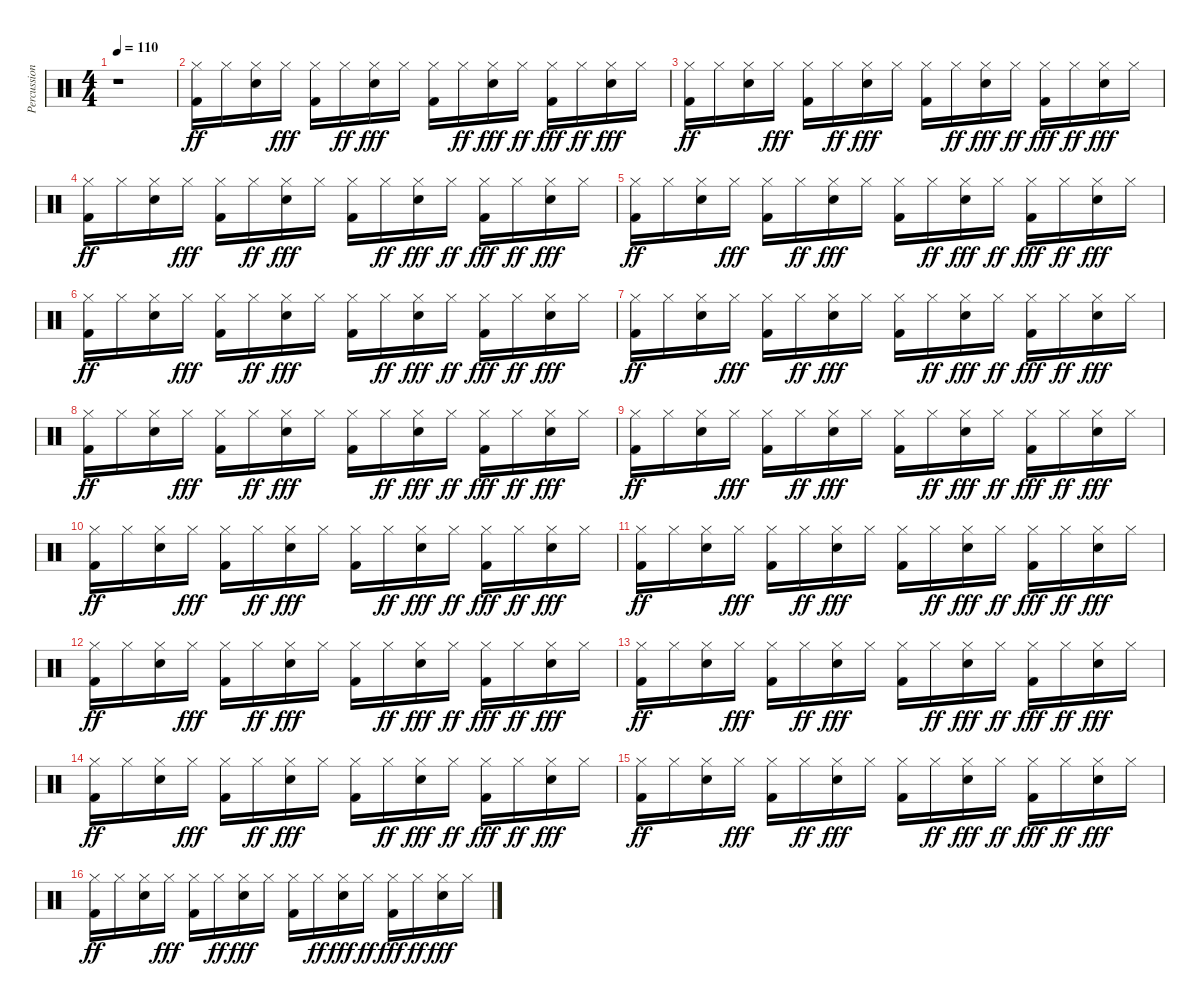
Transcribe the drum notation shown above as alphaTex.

\track ("Percussion" "Percussion") {instrument percussion}
\staff {score}
\articulation defaults
\ts (4 4)
\tempo 110
\clef neutral
\ks c
r.1{dy ff} |
("Kick (hit) 2" "Hi-Hat (closed)").16 "Hi-Hat (closed)".16 ("Electric Snare (hit)" "Hi-Hat (closed)").16 "Hi-Hat (closed)".16{dy fff} ("Kick (hit) 2" "Hi-Hat (closed)").16 "Hi-Hat (closed)".16{dy ff} ("Electric Snare (hit)" "Hi-Hat (closed)").16{dy fff} "Hi-Hat (closed)".16 ("Kick (hit) 2" "Hi-Hat (closed)").16 "Hi-Hat (closed)".16{dy ff} ("Electric Snare (hit)" "Hi-Hat (closed)").16{dy fff} "Hi-Hat (closed)".16{dy ff} ("Kick (hit) 2" "Hi-Hat (closed)").16{dy fff} "Hi-Hat (closed)".16{dy ff} ("Electric Snare (hit)" "Hi-Hat (closed)").16{dy fff} "Hi-Hat (closed)".16 |
("Kick (hit) 2" "Hi-Hat (closed)").16{dy ff} "Hi-Hat (closed)".16 ("Electric Snare (hit)" "Hi-Hat (closed)").16 "Hi-Hat (closed)".16{dy fff} ("Kick (hit) 2" "Hi-Hat (closed)").16 "Hi-Hat (closed)".16{dy ff} ("Electric Snare (hit)" "Hi-Hat (closed)").16{dy fff} "Hi-Hat (closed)".16 ("Kick (hit) 2" "Hi-Hat (closed)").16 "Hi-Hat (closed)".16{dy ff} ("Electric Snare (hit)" "Hi-Hat (closed)").16{dy fff} "Hi-Hat (closed)".16{dy ff} ("Kick (hit) 2" "Hi-Hat (closed)").16{dy fff} "Hi-Hat (closed)".16{dy ff} ("Electric Snare (hit)" "Hi-Hat (closed)").16{dy fff} "Hi-Hat (closed)".16 |
("Kick (hit) 2" "Hi-Hat (closed)").16{dy ff} "Hi-Hat (closed)".16 ("Electric Snare (hit)" "Hi-Hat (closed)").16 "Hi-Hat (closed)".16{dy fff} ("Kick (hit) 2" "Hi-Hat (closed)").16 "Hi-Hat (closed)".16{dy ff} ("Electric Snare (hit)" "Hi-Hat (closed)").16{dy fff} "Hi-Hat (closed)".16 ("Kick (hit) 2" "Hi-Hat (closed)").16 "Hi-Hat (closed)".16{dy ff} ("Electric Snare (hit)" "Hi-Hat (closed)").16{dy fff} "Hi-Hat (closed)".16{dy ff} ("Kick (hit) 2" "Hi-Hat (closed)").16{dy fff} "Hi-Hat (closed)".16{dy ff} ("Electric Snare (hit)" "Hi-Hat (closed)").16{dy fff} "Hi-Hat (closed)".16 |
("Kick (hit) 2" "Hi-Hat (closed)").16{dy ff} "Hi-Hat (closed)".16 ("Electric Snare (hit)" "Hi-Hat (closed)").16 "Hi-Hat (closed)".16{dy fff} ("Kick (hit) 2" "Hi-Hat (closed)").16 "Hi-Hat (closed)".16{dy ff} ("Electric Snare (hit)" "Hi-Hat (closed)").16{dy fff} "Hi-Hat (closed)".16 ("Kick (hit) 2" "Hi-Hat (closed)").16 "Hi-Hat (closed)".16{dy ff} ("Electric Snare (hit)" "Hi-Hat (closed)").16{dy fff} "Hi-Hat (closed)".16{dy ff} ("Kick (hit) 2" "Hi-Hat (closed)").16{dy fff} "Hi-Hat (closed)".16{dy ff} ("Electric Snare (hit)" "Hi-Hat (closed)").16{dy fff} "Hi-Hat (closed)".16 |
("Kick (hit) 2" "Hi-Hat (closed)").16{dy ff} "Hi-Hat (closed)".16 ("Electric Snare (hit)" "Hi-Hat (closed)").16 "Hi-Hat (closed)".16{dy fff} ("Kick (hit) 2" "Hi-Hat (closed)").16 "Hi-Hat (closed)".16{dy ff} ("Electric Snare (hit)" "Hi-Hat (closed)").16{dy fff} "Hi-Hat (closed)".16 ("Kick (hit) 2" "Hi-Hat (closed)").16 "Hi-Hat (closed)".16{dy ff} ("Electric Snare (hit)" "Hi-Hat (closed)").16{dy fff} "Hi-Hat (closed)".16{dy ff} ("Kick (hit) 2" "Hi-Hat (closed)").16{dy fff} "Hi-Hat (closed)".16{dy ff} ("Electric Snare (hit)" "Hi-Hat (closed)").16{dy fff} "Hi-Hat (closed)".16 |
("Kick (hit) 2" "Hi-Hat (closed)").16{dy ff} "Hi-Hat (closed)".16 ("Electric Snare (hit)" "Hi-Hat (closed)").16 "Hi-Hat (closed)".16{dy fff} ("Kick (hit) 2" "Hi-Hat (closed)").16 "Hi-Hat (closed)".16{dy ff} ("Electric Snare (hit)" "Hi-Hat (closed)").16{dy fff} "Hi-Hat (closed)".16 ("Kick (hit) 2" "Hi-Hat (closed)").16 "Hi-Hat (closed)".16{dy ff} ("Electric Snare (hit)" "Hi-Hat (closed)").16{dy fff} "Hi-Hat (closed)".16{dy ff} ("Kick (hit) 2" "Hi-Hat (closed)").16{dy fff} "Hi-Hat (closed)".16{dy ff} ("Electric Snare (hit)" "Hi-Hat (closed)").16{dy fff} "Hi-Hat (closed)".16 |
("Kick (hit) 2" "Hi-Hat (closed)").16{dy ff} "Hi-Hat (closed)".16 ("Electric Snare (hit)" "Hi-Hat (closed)").16 "Hi-Hat (closed)".16{dy fff} ("Kick (hit) 2" "Hi-Hat (closed)").16 "Hi-Hat (closed)".16{dy ff} ("Electric Snare (hit)" "Hi-Hat (closed)").16{dy fff} "Hi-Hat (closed)".16 ("Kick (hit) 2" "Hi-Hat (closed)").16 "Hi-Hat (closed)".16{dy ff} ("Electric Snare (hit)" "Hi-Hat (closed)").16{dy fff} "Hi-Hat (closed)".16{dy ff} ("Kick (hit) 2" "Hi-Hat (closed)").16{dy fff} "Hi-Hat (closed)".16{dy ff} ("Electric Snare (hit)" "Hi-Hat (closed)").16{dy fff} "Hi-Hat (closed)".16 |
("Kick (hit) 2" "Hi-Hat (closed)").16{dy ff} "Hi-Hat (closed)".16 ("Electric Snare (hit)" "Hi-Hat (closed)").16 "Hi-Hat (closed)".16{dy fff} ("Kick (hit) 2" "Hi-Hat (closed)").16 "Hi-Hat (closed)".16{dy ff} ("Electric Snare (hit)" "Hi-Hat (closed)").16{dy fff} "Hi-Hat (closed)".16 ("Kick (hit) 2" "Hi-Hat (closed)").16 "Hi-Hat (closed)".16{dy ff} ("Electric Snare (hit)" "Hi-Hat (closed)").16{dy fff} "Hi-Hat (closed)".16{dy ff} ("Kick (hit) 2" "Hi-Hat (closed)").16{dy fff} "Hi-Hat (closed)".16{dy ff} ("Electric Snare (hit)" "Hi-Hat (closed)").16{dy fff} "Hi-Hat (closed)".16 |
("Kick (hit) 2" "Hi-Hat (closed)").16{dy ff} "Hi-Hat (closed)".16 ("Electric Snare (hit)" "Hi-Hat (closed)").16 "Hi-Hat (closed)".16{dy fff} ("Kick (hit) 2" "Hi-Hat (closed)").16 "Hi-Hat (closed)".16{dy ff} ("Electric Snare (hit)" "Hi-Hat (closed)").16{dy fff} "Hi-Hat (closed)".16 ("Kick (hit) 2" "Hi-Hat (closed)").16 "Hi-Hat (closed)".16{dy ff} ("Electric Snare (hit)" "Hi-Hat (closed)").16{dy fff} "Hi-Hat (closed)".16{dy ff} ("Kick (hit) 2" "Hi-Hat (closed)").16{dy fff} "Hi-Hat (closed)".16{dy ff} ("Electric Snare (hit)" "Hi-Hat (closed)").16{dy fff} "Hi-Hat (closed)".16 |
("Kick (hit) 2" "Hi-Hat (closed)").16{dy ff} "Hi-Hat (closed)".16 ("Electric Snare (hit)" "Hi-Hat (closed)").16 "Hi-Hat (closed)".16{dy fff} ("Kick (hit) 2" "Hi-Hat (closed)").16 "Hi-Hat (closed)".16{dy ff} ("Electric Snare (hit)" "Hi-Hat (closed)").16{dy fff} "Hi-Hat (closed)".16 ("Kick (hit) 2" "Hi-Hat (closed)").16 "Hi-Hat (closed)".16{dy ff} ("Electric Snare (hit)" "Hi-Hat (closed)").16{dy fff} "Hi-Hat (closed)".16{dy ff} ("Kick (hit) 2" "Hi-Hat (closed)").16{dy fff} "Hi-Hat (closed)".16{dy ff} ("Electric Snare (hit)" "Hi-Hat (closed)").16{dy fff} "Hi-Hat (closed)".16 |
("Kick (hit) 2" "Hi-Hat (closed)").16{dy ff} "Hi-Hat (closed)".16 ("Electric Snare (hit)" "Hi-Hat (closed)").16 "Hi-Hat (closed)".16{dy fff} ("Kick (hit) 2" "Hi-Hat (closed)").16 "Hi-Hat (closed)".16{dy ff} ("Electric Snare (hit)" "Hi-Hat (closed)").16{dy fff} "Hi-Hat (closed)".16 ("Kick (hit) 2" "Hi-Hat (closed)").16 "Hi-Hat (closed)".16{dy ff} ("Electric Snare (hit)" "Hi-Hat (closed)").16{dy fff} "Hi-Hat (closed)".16{dy ff} ("Kick (hit) 2" "Hi-Hat (closed)").16{dy fff} "Hi-Hat (closed)".16{dy ff} ("Electric Snare (hit)" "Hi-Hat (closed)").16{dy fff} "Hi-Hat (closed)".16 |
("Kick (hit) 2" "Hi-Hat (closed)").16{dy ff} "Hi-Hat (closed)".16 ("Electric Snare (hit)" "Hi-Hat (closed)").16 "Hi-Hat (closed)".16{dy fff} ("Kick (hit) 2" "Hi-Hat (closed)").16 "Hi-Hat (closed)".16{dy ff} ("Electric Snare (hit)" "Hi-Hat (closed)").16{dy fff} "Hi-Hat (closed)".16 ("Kick (hit) 2" "Hi-Hat (closed)").16 "Hi-Hat (closed)".16{dy ff} ("Electric Snare (hit)" "Hi-Hat (closed)").16{dy fff} "Hi-Hat (closed)".16{dy ff} ("Kick (hit) 2" "Hi-Hat (closed)").16{dy fff} "Hi-Hat (closed)".16{dy ff} ("Electric Snare (hit)" "Hi-Hat (closed)").16{dy fff} "Hi-Hat (closed)".16 |
("Kick (hit) 2" "Hi-Hat (closed)").16{dy ff} "Hi-Hat (closed)".16 ("Electric Snare (hit)" "Hi-Hat (closed)").16 "Hi-Hat (closed)".16{dy fff} ("Kick (hit) 2" "Hi-Hat (closed)").16 "Hi-Hat (closed)".16{dy ff} ("Electric Snare (hit)" "Hi-Hat (closed)").16{dy fff} "Hi-Hat (closed)".16 ("Kick (hit) 2" "Hi-Hat (closed)").16 "Hi-Hat (closed)".16{dy ff} ("Electric Snare (hit)" "Hi-Hat (closed)").16{dy fff} "Hi-Hat (closed)".16{dy ff} ("Kick (hit) 2" "Hi-Hat (closed)").16{dy fff} "Hi-Hat (closed)".16{dy ff} ("Electric Snare (hit)" "Hi-Hat (closed)").16{dy fff} "Hi-Hat (closed)".16 |
("Kick (hit) 2" "Hi-Hat (closed)").16{dy ff} "Hi-Hat (closed)".16 ("Electric Snare (hit)" "Hi-Hat (closed)").16 "Hi-Hat (closed)".16{dy fff} ("Kick (hit) 2" "Hi-Hat (closed)").16 "Hi-Hat (closed)".16{dy ff} ("Electric Snare (hit)" "Hi-Hat (closed)").16{dy fff} "Hi-Hat (closed)".16 ("Kick (hit) 2" "Hi-Hat (closed)").16 "Hi-Hat (closed)".16{dy ff} ("Electric Snare (hit)" "Hi-Hat (closed)").16{dy fff} "Hi-Hat (closed)".16{dy ff} ("Kick (hit) 2" "Hi-Hat (closed)").16{dy fff} "Hi-Hat (closed)".16{dy ff} ("Electric Snare (hit)" "Hi-Hat (closed)").16{dy fff} "Hi-Hat (closed)".16 |
("Kick (hit) 2" "Hi-Hat (closed)").16{dy ff} "Hi-Hat (closed)".16 ("Electric Snare (hit)" "Hi-Hat (closed)").16 "Hi-Hat (closed)".16{dy fff} ("Kick (hit) 2" "Hi-Hat (closed)").16 "Hi-Hat (closed)".16{dy ff} ("Electric Snare (hit)" "Hi-Hat (closed)").16{dy fff} "Hi-Hat (closed)".16 ("Kick (hit) 2" "Hi-Hat (closed)").16 "Hi-Hat (closed)".16{dy ff} ("Electric Snare (hit)" "Hi-Hat (closed)").16{dy fff} "Hi-Hat (closed)".16{dy ff} ("Kick (hit) 2" "Hi-Hat (closed)").16{dy fff} "Hi-Hat (closed)".16{dy ff} ("Electric Snare (hit)" "Hi-Hat (closed)").16{dy fff} "Hi-Hat (closed)".16
